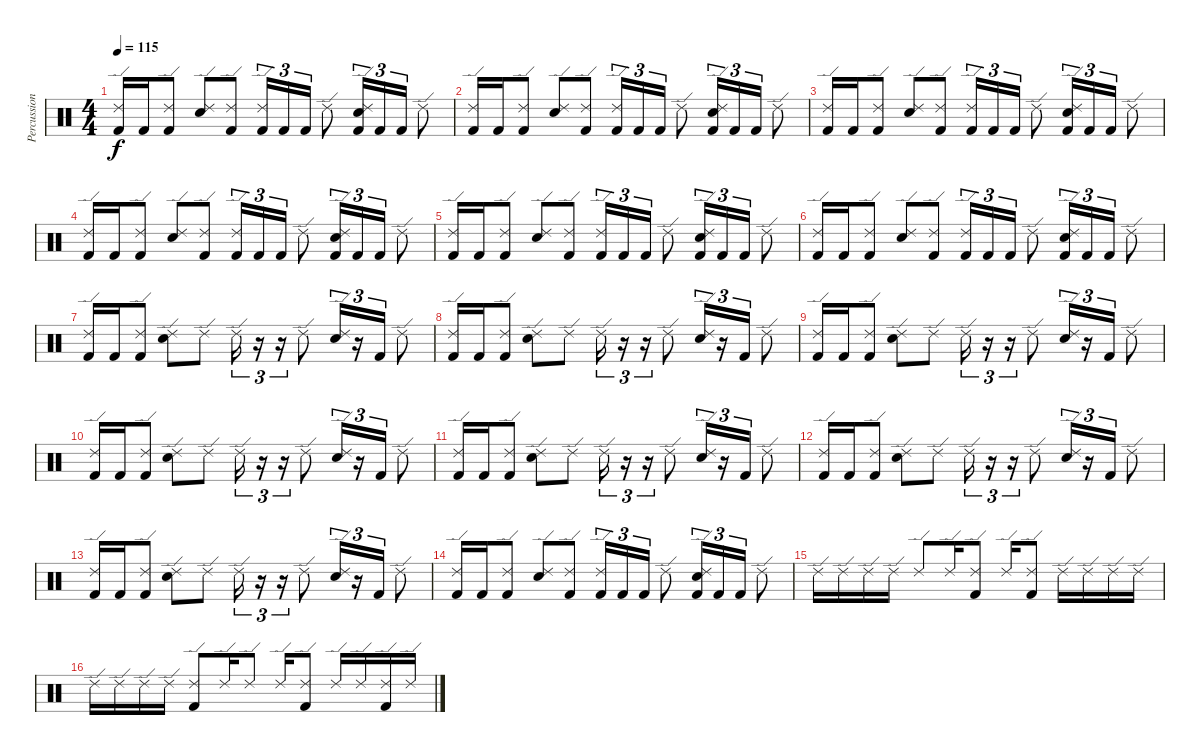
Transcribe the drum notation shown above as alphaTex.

\track ("Percussion" "Percussion") {instrument percussion}
\staff {score}
\articulation defaults
\ts (4 4)
\tempo 115
\clef neutral
\ks c
("Ride (edge) 2" "Kick (hit) 2").16{dy f} "Kick (hit) 2".16 ("Ride (edge) 2" "Kick (hit) 2").8 ("Ride (edge) 2" "Snare (hit) 2").8 ("Ride (edge) 2" "Kick (hit) 2").8 ("Ride (edge) 2" "Kick (hit) 2").16{tu (3 2)} "Kick (hit) 2".16{tu (3 2)} "Kick (hit) 2".16{tu (3 2)} "Ride (edge) 2".8 ("Ride (edge) 2" "Snare (hit) 2" "Kick (hit) 2").16{tu (3 2)} "Kick (hit) 2".16{tu (3 2)} "Kick (hit) 2".16{tu (3 2)} "Ride (edge) 2".8 |
("Ride (edge) 2" "Kick (hit) 2").16 "Kick (hit) 2".16 ("Ride (edge) 2" "Kick (hit) 2").8 ("Ride (edge) 2" "Snare (hit) 2").8 ("Ride (edge) 2" "Kick (hit) 2").8 ("Ride (edge) 2" "Kick (hit) 2").16{tu (3 2)} "Kick (hit) 2".16{tu (3 2)} "Kick (hit) 2".16{tu (3 2)} "Ride (edge) 2".8 ("Ride (edge) 2" "Snare (hit) 2" "Kick (hit) 2").16{tu (3 2)} "Kick (hit) 2".16{tu (3 2)} "Kick (hit) 2".16{tu (3 2)} "Ride (edge) 2".8 |
("Ride (edge) 2" "Kick (hit) 2").16 "Kick (hit) 2".16 ("Ride (edge) 2" "Kick (hit) 2").8 ("Ride (edge) 2" "Snare (hit) 2").8 ("Ride (edge) 2" "Kick (hit) 2").8 ("Ride (edge) 2" "Kick (hit) 2").16{tu (3 2)} "Kick (hit) 2".16{tu (3 2)} "Kick (hit) 2".16{tu (3 2)} "Ride (edge) 2".8 ("Ride (edge) 2" "Snare (hit) 2" "Kick (hit) 2").16{tu (3 2)} "Kick (hit) 2".16{tu (3 2)} "Kick (hit) 2".16{tu (3 2)} "Ride (edge) 2".8 |
("Ride (edge) 2" "Kick (hit) 2").16 "Kick (hit) 2".16 ("Ride (edge) 2" "Kick (hit) 2").8 ("Ride (edge) 2" "Snare (hit) 2").8 ("Ride (edge) 2" "Kick (hit) 2").8 ("Ride (edge) 2" "Kick (hit) 2").16{tu (3 2)} "Kick (hit) 2".16{tu (3 2)} "Kick (hit) 2".16{tu (3 2)} "Ride (edge) 2".8 ("Ride (edge) 2" "Snare (hit) 2" "Kick (hit) 2").16{tu (3 2)} "Kick (hit) 2".16{tu (3 2)} "Kick (hit) 2".16{tu (3 2)} "Ride (edge) 2".8 |
("Ride (edge) 2" "Kick (hit) 2").16 "Kick (hit) 2".16 ("Ride (edge) 2" "Kick (hit) 2").8 ("Ride (edge) 2" "Snare (hit) 2").8 ("Ride (edge) 2" "Kick (hit) 2").8 ("Ride (edge) 2" "Kick (hit) 2").16{tu (3 2)} "Kick (hit) 2".16{tu (3 2)} "Kick (hit) 2".16{tu (3 2)} "Ride (edge) 2".8 ("Ride (edge) 2" "Snare (hit) 2" "Kick (hit) 2").16{tu (3 2)} "Kick (hit) 2".16{tu (3 2)} "Kick (hit) 2".16{tu (3 2)} "Ride (edge) 2".8 |
("Ride (edge) 2" "Kick (hit) 2").16 "Kick (hit) 2".16 ("Ride (edge) 2" "Kick (hit) 2").8 ("Ride (edge) 2" "Snare (hit) 2").8 ("Ride (edge) 2" "Kick (hit) 2").8 ("Ride (edge) 2" "Kick (hit) 2").16{tu (3 2)} "Kick (hit) 2".16{tu (3 2)} "Kick (hit) 2".16{tu (3 2)} "Ride (edge) 2".8 ("Ride (edge) 2" "Snare (hit) 2" "Kick (hit) 2").16{tu (3 2)} "Kick (hit) 2".16{tu (3 2)} "Kick (hit) 2".16{tu (3 2)} "Ride (edge) 2".8 |
("Ride (edge) 2" "Kick (hit) 2").16 "Kick (hit) 2".16 ("Ride (edge) 2" "Kick (hit) 2").8 ("Ride (edge) 2" "Snare (hit) 2").8 "Ride (edge) 2".8 "Ride (edge) 2".16{tu (3 2)} r.16{tu (3 2)} r.16{tu (3 2)} "Ride (edge) 2".8 ("Ride (edge) 2" "Snare (hit) 2").16{tu (3 2)} r.16{tu (3 2)} "Kick (hit) 2".16{tu (3 2)} "Ride (edge) 2".8 |
("Ride (edge) 2" "Kick (hit) 2").16 "Kick (hit) 2".16 ("Ride (edge) 2" "Kick (hit) 2").8 ("Ride (edge) 2" "Snare (hit) 2").8 "Ride (edge) 2".8 "Ride (edge) 2".16{tu (3 2)} r.16{tu (3 2)} r.16{tu (3 2)} "Ride (edge) 2".8 ("Ride (edge) 2" "Snare (hit) 2").16{tu (3 2)} r.16{tu (3 2)} "Kick (hit) 2".16{tu (3 2)} "Ride (edge) 2".8 |
("Ride (edge) 2" "Kick (hit) 2").16 "Kick (hit) 2".16 ("Ride (edge) 2" "Kick (hit) 2").8 ("Ride (edge) 2" "Snare (hit) 2").8 "Ride (edge) 2".8 "Ride (edge) 2".16{tu (3 2)} r.16{tu (3 2)} r.16{tu (3 2)} "Ride (edge) 2".8 ("Ride (edge) 2" "Snare (hit) 2").16{tu (3 2)} r.16{tu (3 2)} "Kick (hit) 2".16{tu (3 2)} "Ride (edge) 2".8 |
("Ride (edge) 2" "Kick (hit) 2").16 "Kick (hit) 2".16 ("Ride (edge) 2" "Kick (hit) 2").8 ("Ride (edge) 2" "Snare (hit) 2").8 "Ride (edge) 2".8 "Ride (edge) 2".16{tu (3 2)} r.16{tu (3 2)} r.16{tu (3 2)} "Ride (edge) 2".8 ("Ride (edge) 2" "Snare (hit) 2").16{tu (3 2)} r.16{tu (3 2)} "Kick (hit) 2".16{tu (3 2)} "Ride (edge) 2".8 |
("Ride (edge) 2" "Kick (hit) 2").16 "Kick (hit) 2".16 ("Ride (edge) 2" "Kick (hit) 2").8 ("Ride (edge) 2" "Snare (hit) 2").8 "Ride (edge) 2".8 "Ride (edge) 2".16{tu (3 2)} r.16{tu (3 2)} r.16{tu (3 2)} "Ride (edge) 2".8 ("Ride (edge) 2" "Snare (hit) 2").16{tu (3 2)} r.16{tu (3 2)} "Kick (hit) 2".16{tu (3 2)} "Ride (edge) 2".8 |
("Ride (edge) 2" "Kick (hit) 2").16 "Kick (hit) 2".16 ("Ride (edge) 2" "Kick (hit) 2").8 ("Ride (edge) 2" "Snare (hit) 2").8 "Ride (edge) 2".8 "Ride (edge) 2".16{tu (3 2)} r.16{tu (3 2)} r.16{tu (3 2)} "Ride (edge) 2".8 ("Ride (edge) 2" "Snare (hit) 2").16{tu (3 2)} r.16{tu (3 2)} "Kick (hit) 2".16{tu (3 2)} "Ride (edge) 2".8 |
("Ride (edge) 2" "Kick (hit) 2").16 "Kick (hit) 2".16 ("Ride (edge) 2" "Kick (hit) 2").8 ("Ride (edge) 2" "Snare (hit) 2").8 "Ride (edge) 2".8 "Ride (edge) 2".16{tu (3 2)} r.16{tu (3 2)} r.16{tu (3 2)} "Ride (edge) 2".8 ("Ride (edge) 2" "Snare (hit) 2").16{tu (3 2)} r.16{tu (3 2)} "Kick (hit) 2".16{tu (3 2)} "Ride (edge) 2".8 |
("Ride (edge) 2" "Kick (hit) 2").16 "Kick (hit) 2".16 ("Ride (edge) 2" "Kick (hit) 2").8 ("Ride (edge) 2" "Snare (hit) 2").8 ("Ride (edge) 2" "Kick (hit) 2").8 ("Ride (edge) 2" "Kick (hit) 2").16{tu (3 2)} "Kick (hit) 2".16{tu (3 2)} "Kick (hit) 2".16{tu (3 2)} "Ride (edge) 2".8 ("Ride (edge) 2" "Snare (hit) 2" "Kick (hit) 2").16{tu (3 2)} "Kick (hit) 2".16{tu (3 2)} "Kick (hit) 2".16{tu (3 2)} "Ride (edge) 2".8 |
"Ride (edge) 2".16 "Ride (edge) 2".16 "Ride (edge) 2".16 "Ride (edge) 2".16 "Ride (edge) 2".8 "Ride (edge) 2".16 ("Kick (hit) 2" "Ride (edge) 2").8 "Ride (edge) 2".16 ("Kick (hit) 2" "Ride (edge) 2").8 "Ride (edge) 2".16 "Ride (edge) 2".16 "Ride (edge) 2".16 "Ride (edge) 2".16 |
"Ride (edge) 2".16 "Ride (edge) 2".16 "Ride (edge) 2".16 "Ride (edge) 2".16 ("Kick (hit) 2" "Ride (edge) 2").8 "Ride (edge) 2".16 "Ride (edge) 2".8 "Ride (edge) 2".16 ("Kick (hit) 2" "Ride (edge) 2").8 "Ride (edge) 2".16 "Ride (edge) 2".16 ("Kick (hit) 2" "Ride (edge) 2").16 "Ride (edge) 2".16
